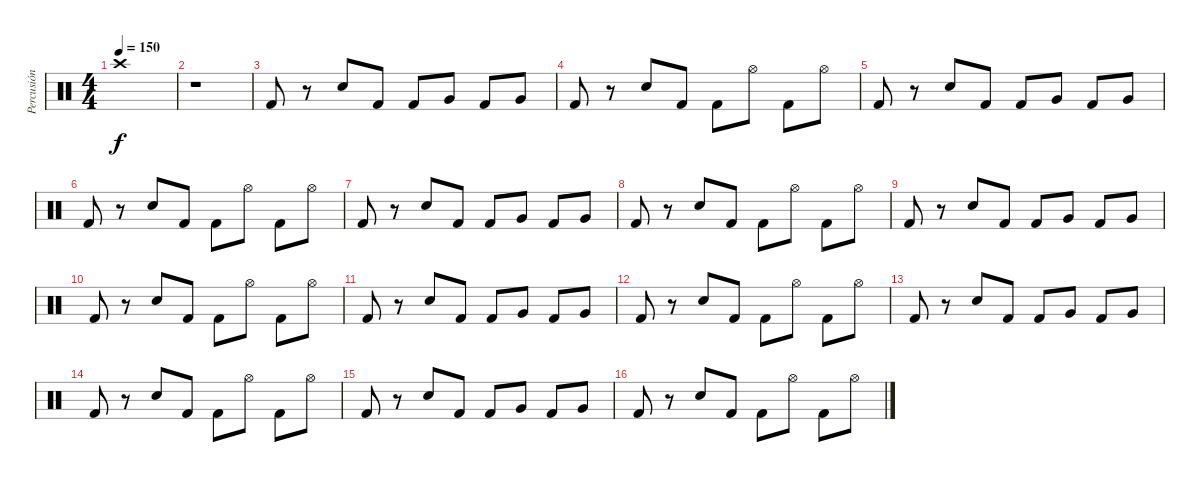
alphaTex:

\track ("Percusión" "Percusión") {instrument percussion}
\staff {score}
\articulation defaults
\ts (4 4)
\tempo 150
\clef neutral
\ks c "Crash high (hit)".1{dy f}
|
r.1 |
"Kick (hit) 2".8 r.8 "Snare (hit) 2".8 "Kick (hit) 2".8 "Kick (hit) 2".8 "Very Low Tom (hit)".8 "Kick (hit) 2".8 "Very Low Tom (hit)".8 |
"Kick (hit) 2".8 r.8 "Snare (hit) 2".8 "Kick (hit) 2".8 "Kick (hit) 2".8 "Hi-Hat (open)".8 "Kick (hit) 2".8 "Hi-Hat (open)".8 |
"Kick (hit) 2".8 r.8 "Snare (hit) 2".8 "Kick (hit) 2".8 "Kick (hit) 2".8 "Very Low Tom (hit)".8 "Kick (hit) 2".8 "Very Low Tom (hit)".8 |
"Kick (hit) 2".8 r.8 "Snare (hit) 2".8 "Kick (hit) 2".8 "Kick (hit) 2".8 "Hi-Hat (open)".8 "Kick (hit) 2".8 "Hi-Hat (open)".8 |
"Kick (hit) 2".8 r.8 "Snare (hit) 2".8 "Kick (hit) 2".8 "Kick (hit) 2".8 "Very Low Tom (hit)".8 "Kick (hit) 2".8 "Very Low Tom (hit)".8 |
"Kick (hit) 2".8 r.8 "Snare (hit) 2".8 "Kick (hit) 2".8 "Kick (hit) 2".8 "Hi-Hat (open)".8 "Kick (hit) 2".8 "Hi-Hat (open)".8 |
"Kick (hit) 2".8 r.8 "Snare (hit) 2".8 "Kick (hit) 2".8 "Kick (hit) 2".8 "Very Low Tom (hit)".8 "Kick (hit) 2".8 "Very Low Tom (hit)".8 |
"Kick (hit) 2".8 r.8 "Snare (hit) 2".8 "Kick (hit) 2".8 "Kick (hit) 2".8 "Hi-Hat (open)".8 "Kick (hit) 2".8 "Hi-Hat (open)".8 |
"Kick (hit) 2".8 r.8 "Snare (hit) 2".8 "Kick (hit) 2".8 "Kick (hit) 2".8 "Very Low Tom (hit)".8 "Kick (hit) 2".8 "Very Low Tom (hit)".8 |
"Kick (hit) 2".8 r.8 "Snare (hit) 2".8 "Kick (hit) 2".8 "Kick (hit) 2".8 "Hi-Hat (open)".8 "Kick (hit) 2".8 "Hi-Hat (open)".8 |
"Kick (hit) 2".8 r.8 "Snare (hit) 2".8 "Kick (hit) 2".8 "Kick (hit) 2".8 "Very Low Tom (hit)".8 "Kick (hit) 2".8 "Very Low Tom (hit)".8 |
"Kick (hit) 2".8 r.8 "Snare (hit) 2".8 "Kick (hit) 2".8 "Kick (hit) 2".8 "Hi-Hat (open)".8 "Kick (hit) 2".8 "Hi-Hat (open)".8 |
"Kick (hit) 2".8 r.8 "Snare (hit) 2".8 "Kick (hit) 2".8 "Kick (hit) 2".8 "Very Low Tom (hit)".8 "Kick (hit) 2".8 "Very Low Tom (hit)".8 |
"Kick (hit) 2".8 r.8 "Snare (hit) 2".8 "Kick (hit) 2".8 "Kick (hit) 2".8 "Hi-Hat (open)".8 "Kick (hit) 2".8 "Hi-Hat (open)".8
